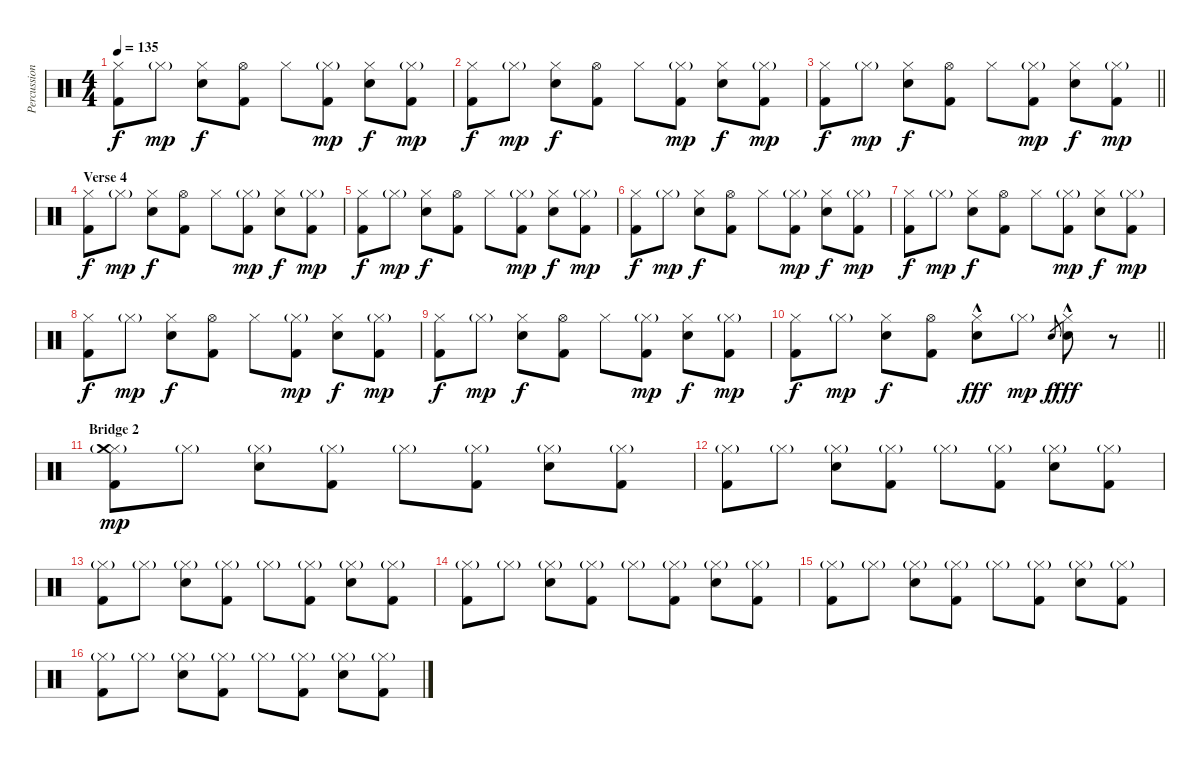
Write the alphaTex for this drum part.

\track ("Percussion 1" "Percussion") {instrument percussion}
\staff {score}
\articulation defaults
\ts (4 4)
\tempo 135
\clef neutral
\ks c
("Hi-Hat (closed)" "Kick (hit) 2").8{dy f} "Hi-Hat (closed)"{g}.8{dy mp} ("Hi-Hat (closed)" "Electric Snare (hit)").8{dy f} ("Hi-Hat (open)" "Kick (hit) 2").8 "Hi-Hat (closed)".8 ("Hi-Hat (closed)"{g} "Kick (hit) 2").8{dy mp} ("Hi-Hat (closed)" "Electric Snare (hit)").8{dy f} ("Hi-Hat (closed)"{g} "Kick (hit) 2").8{dy mp} |
("Hi-Hat (closed)" "Kick (hit) 2").8{dy f} "Hi-Hat (closed)"{g}.8{dy mp} ("Hi-Hat (closed)" "Electric Snare (hit)").8{dy f} ("Hi-Hat (open)" "Kick (hit) 2").8 "Hi-Hat (closed)".8 ("Hi-Hat (closed)"{g} "Kick (hit) 2").8{dy mp} ("Hi-Hat (closed)" "Electric Snare (hit)").8{dy f} ("Hi-Hat (closed)"{g} "Kick (hit) 2").8{dy mp} |
\barLineRight lightlight
("Hi-Hat (closed)" "Kick (hit) 2").8{dy f} "Hi-Hat (closed)"{g}.8{dy mp} ("Hi-Hat (closed)" "Electric Snare (hit)").8{dy f} ("Hi-Hat (open)" "Kick (hit) 2").8 "Hi-Hat (closed)".8 ("Hi-Hat (closed)"{g} "Kick (hit) 2").8{dy mp} ("Hi-Hat (closed)" "Electric Snare (hit)").8{dy f} ("Hi-Hat (closed)"{g} "Kick (hit) 2").8{dy mp} |
\section ("" "Verse 4")
("Hi-Hat (closed)" "Kick (hit) 2").8{dy f} "Hi-Hat (closed)"{g}.8{dy mp} ("Hi-Hat (closed)" "Electric Snare (hit)").8{dy f} ("Hi-Hat (open)" "Kick (hit) 2").8 "Hi-Hat (closed)".8 ("Hi-Hat (closed)"{g} "Kick (hit) 2").8{dy mp} ("Hi-Hat (closed)" "Electric Snare (hit)").8{dy f} ("Hi-Hat (closed)"{g} "Kick (hit) 2").8{dy mp} |
("Hi-Hat (closed)" "Kick (hit) 2").8{dy f} "Hi-Hat (closed)"{g}.8{dy mp} ("Hi-Hat (closed)" "Electric Snare (hit)").8{dy f} ("Hi-Hat (open)" "Kick (hit) 2").8 "Hi-Hat (closed)".8 ("Hi-Hat (closed)"{g} "Kick (hit) 2").8{dy mp} ("Hi-Hat (closed)" "Electric Snare (hit)").8{dy f} ("Hi-Hat (closed)"{g} "Kick (hit) 2").8{dy mp} |
("Hi-Hat (closed)" "Kick (hit) 2").8{dy f} "Hi-Hat (closed)"{g}.8{dy mp} ("Hi-Hat (closed)" "Electric Snare (hit)").8{dy f} ("Hi-Hat (open)" "Kick (hit) 2").8 "Hi-Hat (closed)".8 ("Hi-Hat (closed)"{g} "Kick (hit) 2").8{dy mp} ("Hi-Hat (closed)" "Electric Snare (hit)").8{dy f} ("Hi-Hat (closed)"{g} "Kick (hit) 2").8{dy mp} |
("Hi-Hat (closed)" "Kick (hit) 2").8{dy f} "Hi-Hat (closed)"{g}.8{dy mp} ("Hi-Hat (closed)" "Electric Snare (hit)").8{dy f} ("Hi-Hat (open)" "Kick (hit) 2").8 "Hi-Hat (closed)".8 ("Hi-Hat (closed)"{g} "Kick (hit) 2").8{dy mp} ("Hi-Hat (closed)" "Electric Snare (hit)").8{dy f} ("Hi-Hat (closed)"{g} "Kick (hit) 2").8{dy mp} |
("Hi-Hat (closed)" "Kick (hit) 2").8{dy f} "Hi-Hat (closed)"{g}.8{dy mp} ("Hi-Hat (closed)" "Electric Snare (hit)").8{dy f} ("Hi-Hat (open)" "Kick (hit) 2").8 "Hi-Hat (closed)".8 ("Hi-Hat (closed)"{g} "Kick (hit) 2").8{dy mp} ("Hi-Hat (closed)" "Electric Snare (hit)").8{dy f} ("Hi-Hat (closed)"{g} "Kick (hit) 2").8{dy mp} |
("Hi-Hat (closed)" "Kick (hit) 2").8{dy f} "Hi-Hat (closed)"{g}.8{dy mp} ("Hi-Hat (closed)" "Electric Snare (hit)").8{dy f} ("Hi-Hat (open)" "Kick (hit) 2").8 "Hi-Hat (closed)".8 ("Hi-Hat (closed)"{g} "Kick (hit) 2").8{dy mp} ("Hi-Hat (closed)" "Electric Snare (hit)").8{dy f} ("Hi-Hat (closed)"{g} "Kick (hit) 2").8{dy mp} |
\barLineRight lightlight
("Hi-Hat (closed)" "Kick (hit) 2").8{dy f} "Hi-Hat (closed)"{g}.8{dy mp} ("Hi-Hat (closed)" "Electric Snare (hit)").8{dy f} ("Hi-Hat (open)" "Kick (hit) 2").8 ("Hi-Hat (closed)" "Electric Snare (hit)"{hac}).8{dy fff} "Hi-Hat (closed)"{g}.8{dy mp} "Electric Snare (hit)".8{gr dy f} ("Hi-Hat (closed)" "Electric Snare (hit)"{hac}).8{dy fff} r.8 |
\section ("" "Bridge 2")
("Hi-Hat (closed)"{g} "Crash medium (hit)" "Kick (hit) 2").8{dy mp} "Hi-Hat (closed)"{g}.8 ("Hi-Hat (closed)"{g} "Electric Snare (hit)").8 ("Hi-Hat (closed)"{g} "Kick (hit) 2").8 "Hi-Hat (closed)"{g}.8 ("Hi-Hat (closed)"{g} "Kick (hit) 2").8 ("Hi-Hat (closed)"{g} "Electric Snare (hit)").8 ("Hi-Hat (closed)"{g} "Kick (hit) 2").8 |
("Hi-Hat (closed)"{g} "Kick (hit) 2").8 "Hi-Hat (closed)"{g}.8 ("Hi-Hat (closed)"{g} "Electric Snare (hit)").8 ("Hi-Hat (closed)"{g} "Kick (hit) 2").8 "Hi-Hat (closed)"{g}.8 ("Hi-Hat (closed)"{g} "Kick (hit) 2").8 ("Hi-Hat (closed)"{g} "Electric Snare (hit)").8 ("Hi-Hat (closed)"{g} "Kick (hit) 2").8 |
("Hi-Hat (closed)"{g} "Kick (hit) 2").8 "Hi-Hat (closed)"{g}.8 ("Hi-Hat (closed)"{g} "Electric Snare (hit)").8 ("Hi-Hat (closed)"{g} "Kick (hit) 2").8 "Hi-Hat (closed)"{g}.8 ("Hi-Hat (closed)"{g} "Kick (hit) 2").8 ("Hi-Hat (closed)"{g} "Electric Snare (hit)").8 ("Hi-Hat (closed)"{g} "Kick (hit) 2").8 |
("Hi-Hat (closed)"{g} "Kick (hit) 2").8 "Hi-Hat (closed)"{g}.8 ("Hi-Hat (closed)"{g} "Electric Snare (hit)").8 ("Hi-Hat (closed)"{g} "Kick (hit) 2").8 "Hi-Hat (closed)"{g}.8 ("Hi-Hat (closed)"{g} "Kick (hit) 2").8 ("Hi-Hat (closed)"{g} "Electric Snare (hit)").8 ("Hi-Hat (closed)"{g} "Kick (hit) 2").8 |
("Hi-Hat (closed)"{g} "Kick (hit) 2").8 "Hi-Hat (closed)"{g}.8 ("Hi-Hat (closed)"{g} "Electric Snare (hit)").8 ("Hi-Hat (closed)"{g} "Kick (hit) 2").8 "Hi-Hat (closed)"{g}.8 ("Hi-Hat (closed)"{g} "Kick (hit) 2").8 ("Hi-Hat (closed)"{g} "Electric Snare (hit)").8 ("Hi-Hat (closed)"{g} "Kick (hit) 2").8 |
("Hi-Hat (closed)"{g} "Kick (hit) 2").8 "Hi-Hat (closed)"{g}.8 ("Hi-Hat (closed)"{g} "Electric Snare (hit)").8 ("Hi-Hat (closed)"{g} "Kick (hit) 2").8 "Hi-Hat (closed)"{g}.8 ("Hi-Hat (closed)"{g} "Kick (hit) 2").8 ("Hi-Hat (closed)"{g} "Electric Snare (hit)").8 ("Hi-Hat (closed)"{g} "Kick (hit) 2").8
